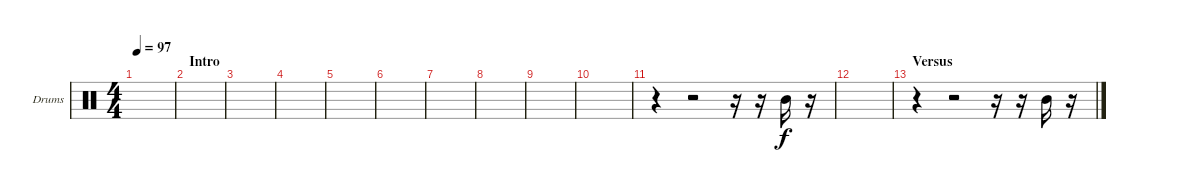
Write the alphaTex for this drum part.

\bracketExtendMode groupsimilarinstruments
\firstSystemTrackNameOrientation horizontal
\otherSystemsTrackNameOrientation horizontal
\track ("Tom" "Drums") {instrument percussion}
\staff {score}
\articulation defaults
\ts (4 4)
\tempo 97
\clef neutral
\scale
0.262911
\ks c
|
\section ("" "Intro")
\scale
0.333333 |
\scale
0.333333 |
\scale
0.333333 |
\scale
0.333333 |
\scale
0.333333 |
\scale
0.333333 |
\scale
0.333333 |
\scale
0.333333 |
\scale
0.333333 |
\scale
0.333333 r.4 r.2 r.16 r.16 "Mid Tom (hit)".16 r.16 |
\scale
0.333333 |
\section ("" "Versus")
\scale
0.333333 r.4 r.2 r.16 r.16 "Mid Tom (hit)".16 r.16 |
\scale
0.333333 |
\scale
0.333333
